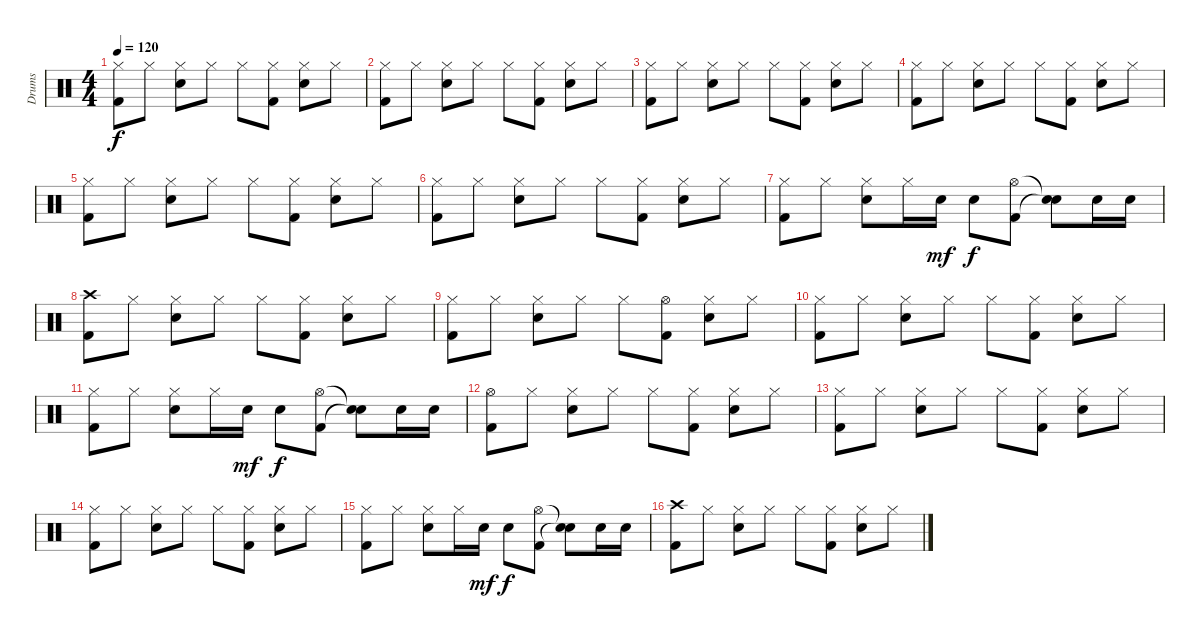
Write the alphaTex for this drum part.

\track ("Drums" "Drums") {instrument percussion}
\staff {score}
\articulation defaults
\ts (4 4)
\tempo 120
\clef neutral
\ks c
("Hi-Hat (closed)" "Kick (hit) 2").8{dy f} "Hi-Hat (closed)".8 ("Hi-Hat (closed)" "Snare (hit) 2").8 "Hi-Hat (closed)".8 "Hi-Hat (closed)".8 ("Hi-Hat (closed)" "Kick (hit) 2").8 ("Hi-Hat (closed)" "Snare (hit) 2").8 "Hi-Hat (closed)".8 |
("Hi-Hat (closed)" "Kick (hit) 2").8 "Hi-Hat (closed)".8 ("Hi-Hat (closed)" "Snare (hit) 2").8 "Hi-Hat (closed)".8 "Hi-Hat (closed)".8 ("Hi-Hat (closed)" "Kick (hit) 2").8 ("Hi-Hat (closed)" "Snare (hit) 2").8 "Hi-Hat (closed)".8 |
("Hi-Hat (closed)" "Kick (hit) 2").8 "Hi-Hat (closed)".8 ("Hi-Hat (closed)" "Snare (hit) 2").8 "Hi-Hat (closed)".8 "Hi-Hat (closed)".8 ("Hi-Hat (closed)" "Kick (hit) 2").8 ("Hi-Hat (closed)" "Snare (hit) 2").8 "Hi-Hat (closed)".8 |
("Hi-Hat (closed)" "Kick (hit) 2").8 "Hi-Hat (closed)".8 ("Hi-Hat (closed)" "Snare (hit) 2").8 "Hi-Hat (closed)".8 "Hi-Hat (closed)".8 ("Hi-Hat (closed)" "Kick (hit) 2").8 ("Hi-Hat (closed)" "Snare (hit) 2").8 "Hi-Hat (closed)".8 |
("Hi-Hat (closed)" "Kick (hit) 2").8 "Hi-Hat (closed)".8 ("Hi-Hat (closed)" "Snare (hit) 2").8 "Hi-Hat (closed)".8 "Hi-Hat (closed)".8 ("Hi-Hat (closed)" "Kick (hit) 2").8 ("Hi-Hat (closed)" "Snare (hit) 2").8 "Hi-Hat (closed)".8 |
("Hi-Hat (closed)" "Kick (hit) 2").8 "Hi-Hat (closed)".8 ("Hi-Hat (closed)" "Snare (hit) 2").8 "Hi-Hat (closed)".8 "Hi-Hat (closed)".8 ("Hi-Hat (closed)" "Kick (hit) 2").8 ("Hi-Hat (closed)" "Snare (hit) 2").8 "Hi-Hat (closed)".8 |
("Hi-Hat (closed)" "Kick (hit) 2").8 "Hi-Hat (closed)".8 ("Hi-Hat (closed)" "Snare (hit) 2").8 "Hi-Hat (closed)".16 "Snare (hit) 2".16{dy mf} "Snare (hit) 2".8{dy f} ("Hi-Hat (open)" "Kick (hit) 2").8 ("Snare (hit)"{t} "Snare (hit)"{t}).8 "Snare (hit) 2".16 "Snare (hit) 2".16 |
("Crash high (hit)" "Kick (hit) 2").8 "Hi-Hat (closed)".8 ("Hi-Hat (closed)" "Snare (hit) 2").8 "Hi-Hat (closed)".8 "Hi-Hat (closed)".8 ("Hi-Hat (closed)" "Kick (hit) 2").8 ("Hi-Hat (closed)" "Snare (hit) 2").8 "Hi-Hat (closed)".8 |
("Hi-Hat (closed)" "Kick (hit) 2").8 "Hi-Hat (closed)".8 ("Hi-Hat (closed)" "Snare (hit) 2").8 "Hi-Hat (closed)".8 "Hi-Hat (closed)".8 ("Hi-Hat (open)" "Kick (hit) 2").8 ("Hi-Hat (closed)" "Snare (hit) 2").8 "Hi-Hat (closed)".8 |
("Hi-Hat (closed)" "Kick (hit) 2").8 "Hi-Hat (closed)".8 ("Hi-Hat (closed)" "Snare (hit) 2").8 "Hi-Hat (closed)".8 "Hi-Hat (closed)".8 ("Hi-Hat (closed)" "Kick (hit) 2").8 ("Hi-Hat (closed)" "Snare (hit) 2").8 "Hi-Hat (closed)".8 |
("Hi-Hat (closed)" "Kick (hit) 2").8 "Hi-Hat (closed)".8 ("Hi-Hat (closed)" "Snare (hit) 2").8 "Hi-Hat (closed)".16 "Snare (hit) 2".16{dy mf} "Snare (hit) 2".8{dy f} ("Hi-Hat (open)" "Kick (hit) 2").8 ("Snare (hit)"{t} "Snare (hit)"{t}).8 "Snare (hit) 2".16 "Snare (hit) 2".16 |
("Hi-Hat (open)" "Kick (hit) 2").8 "Hi-Hat (closed)".8 ("Hi-Hat (closed)" "Snare (hit) 2").8 "Hi-Hat (closed)".8 "Hi-Hat (closed)".8 ("Hi-Hat (closed)" "Kick (hit) 2").8 ("Hi-Hat (closed)" "Snare (hit) 2").8 "Hi-Hat (closed)".8 |
("Hi-Hat (closed)" "Kick (hit) 2").8 "Hi-Hat (closed)".8 ("Hi-Hat (closed)" "Snare (hit) 2").8 "Hi-Hat (closed)".8 "Hi-Hat (closed)".8 ("Hi-Hat (closed)" "Kick (hit) 2").8 ("Hi-Hat (closed)" "Snare (hit) 2").8 "Hi-Hat (closed)".8 |
("Hi-Hat (closed)" "Kick (hit) 2").8 "Hi-Hat (closed)".8 ("Hi-Hat (closed)" "Snare (hit) 2").8 "Hi-Hat (closed)".8 "Hi-Hat (closed)".8 ("Hi-Hat (closed)" "Kick (hit) 2").8 ("Hi-Hat (closed)" "Snare (hit) 2").8 "Hi-Hat (closed)".8 |
("Hi-Hat (closed)" "Kick (hit) 2").8 "Hi-Hat (closed)".8 ("Hi-Hat (closed)" "Snare (hit) 2").8 "Hi-Hat (closed)".16 "Snare (hit) 2".16{dy mf} "Snare (hit) 2".8{dy f} ("Hi-Hat (open)" "Kick (hit) 2").8 ("Snare (hit)"{t} "Snare (hit)"{t}).8 "Snare (hit) 2".16 "Snare (hit) 2".16 |
("Crash high (hit)" "Kick (hit) 2").8 "Hi-Hat (closed)".8 ("Hi-Hat (closed)" "Snare (hit) 2").8 "Hi-Hat (closed)".8 "Hi-Hat (closed)".8 ("Hi-Hat (closed)" "Kick (hit) 2").8 ("Hi-Hat (closed)" "Snare (hit) 2").8 "Hi-Hat (closed)".8
